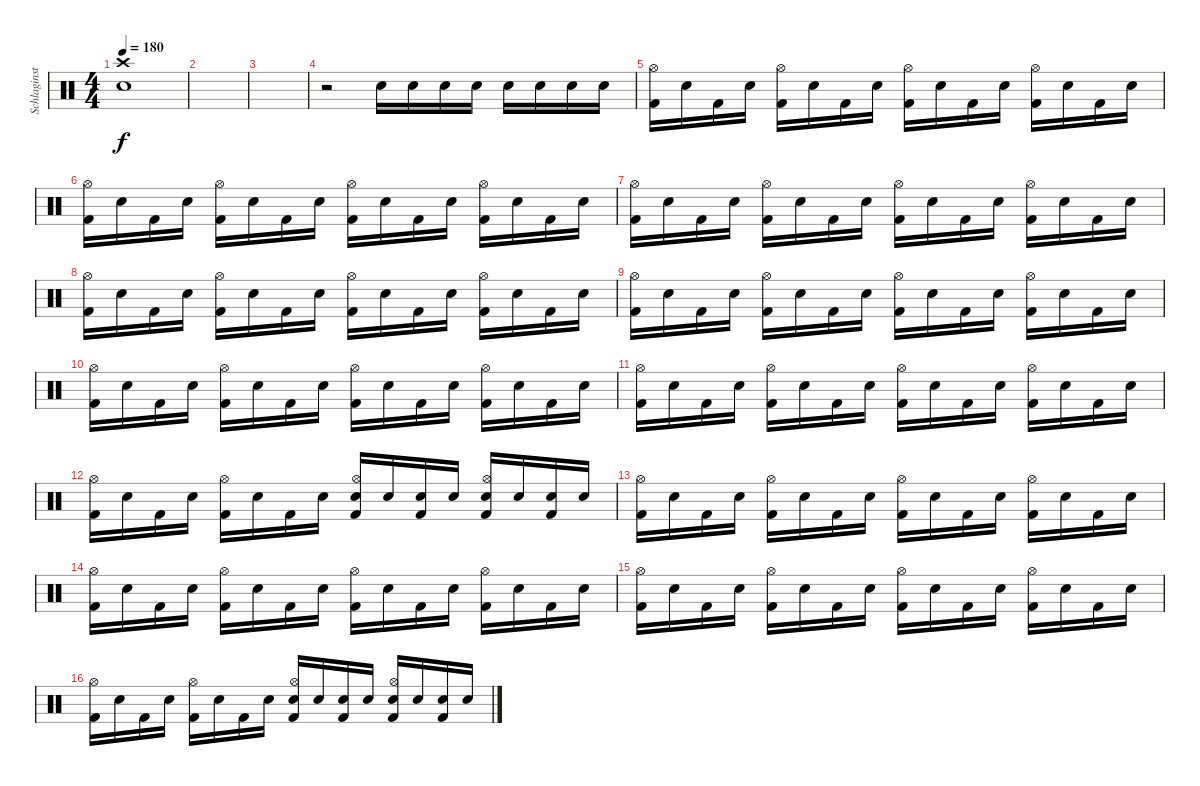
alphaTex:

\track ("Schlaginstrumente - Auswahl" "Schlaginst") {instrument percussion}
\staff {score}
\articulation defaults
\ts (4 4)
\tempo 180
\clef neutral
\ks c
("Crash high (hit)" "Snare (hit) 2").1{dy f} |
|
|
r.2 "Snare (hit) 2".16 "Snare (hit) 2".16 "Snare (hit) 2".16 "Snare (hit) 2".16 "Snare (hit) 2".16 "Snare (hit) 2".16 "Snare (hit) 2".16 "Snare (hit) 2".16 |
("Hi-Hat (open)" "Kick (hit) 2").16 "Snare (hit) 2".16 "Kick (hit) 2".16 "Snare (hit) 2".16 ("Hi-Hat (open)" "Kick (hit) 2").16 "Snare (hit) 2".16 "Kick (hit) 2".16 "Snare (hit) 2".16 ("Hi-Hat (open)" "Kick (hit) 2").16 "Snare (hit) 2".16 "Kick (hit) 2".16 "Snare (hit) 2".16 ("Hi-Hat (open)" "Kick (hit) 2").16 "Snare (hit) 2".16 "Kick (hit) 2".16 "Snare (hit) 2".16 |
("Hi-Hat (open)" "Kick (hit) 2").16 "Snare (hit) 2".16 "Kick (hit) 2".16 "Snare (hit) 2".16 ("Hi-Hat (open)" "Kick (hit) 2").16 "Snare (hit) 2".16 "Kick (hit) 2".16 "Snare (hit) 2".16 ("Hi-Hat (open)" "Kick (hit) 2").16 "Snare (hit) 2".16 "Kick (hit) 2".16 "Snare (hit) 2".16 ("Hi-Hat (open)" "Kick (hit) 2").16 "Snare (hit) 2".16 "Kick (hit) 2".16 "Snare (hit) 2".16 |
("Hi-Hat (open)" "Kick (hit) 2").16 "Snare (hit) 2".16 "Kick (hit) 2".16 "Snare (hit) 2".16 ("Hi-Hat (open)" "Kick (hit) 2").16 "Snare (hit) 2".16 "Kick (hit) 2".16 "Snare (hit) 2".16 ("Hi-Hat (open)" "Kick (hit) 2").16 "Snare (hit) 2".16 "Kick (hit) 2".16 "Snare (hit) 2".16 ("Hi-Hat (open)" "Kick (hit) 2").16 "Snare (hit) 2".16 "Kick (hit) 2".16 "Snare (hit) 2".16 |
("Hi-Hat (open)" "Kick (hit) 2").16 "Snare (hit) 2".16 "Kick (hit) 2".16 "Snare (hit) 2".16 ("Hi-Hat (open)" "Kick (hit) 2").16 "Snare (hit) 2".16 "Kick (hit) 2".16 "Snare (hit) 2".16 ("Hi-Hat (open)" "Kick (hit) 2").16 "Snare (hit) 2".16 "Kick (hit) 2".16 "Snare (hit) 2".16 ("Hi-Hat (open)" "Kick (hit) 2").16 "Snare (hit) 2".16 "Kick (hit) 2".16 "Snare (hit) 2".16 |
("Hi-Hat (open)" "Kick (hit) 2").16 "Snare (hit) 2".16 "Kick (hit) 2".16 "Snare (hit) 2".16 ("Hi-Hat (open)" "Kick (hit) 2").16 "Snare (hit) 2".16 "Kick (hit) 2".16 "Snare (hit) 2".16 ("Hi-Hat (open)" "Kick (hit) 2").16 "Snare (hit) 2".16 "Kick (hit) 2".16 "Snare (hit) 2".16 ("Hi-Hat (open)" "Kick (hit) 2").16 "Snare (hit) 2".16 "Kick (hit) 2".16 "Snare (hit) 2".16 |
("Hi-Hat (open)" "Kick (hit) 2").16 "Snare (hit) 2".16 "Kick (hit) 2".16 "Snare (hit) 2".16 ("Hi-Hat (open)" "Kick (hit) 2").16 "Snare (hit) 2".16 "Kick (hit) 2".16 "Snare (hit) 2".16 ("Hi-Hat (open)" "Kick (hit) 2").16 "Snare (hit) 2".16 "Kick (hit) 2".16 "Snare (hit) 2".16 ("Hi-Hat (open)" "Kick (hit) 2").16 "Snare (hit) 2".16 "Kick (hit) 2".16 "Snare (hit) 2".16 |
("Hi-Hat (open)" "Kick (hit) 2").16 "Snare (hit) 2".16 "Kick (hit) 2".16 "Snare (hit) 2".16 ("Hi-Hat (open)" "Kick (hit) 2").16 "Snare (hit) 2".16 "Kick (hit) 2".16 "Snare (hit) 2".16 ("Hi-Hat (open)" "Kick (hit) 2").16 "Snare (hit) 2".16 "Kick (hit) 2".16 "Snare (hit) 2".16 ("Hi-Hat (open)" "Kick (hit) 2").16 "Snare (hit) 2".16 "Kick (hit) 2".16 "Snare (hit) 2".16 |
("Hi-Hat (open)" "Kick (hit) 2").16 "Snare (hit) 2".16 "Kick (hit) 2".16 "Snare (hit) 2".16 ("Hi-Hat (open)" "Kick (hit) 2").16 "Snare (hit) 2".16 "Kick (hit) 2".16 "Snare (hit) 2".16 ("Hi-Hat (open)" "Snare (hit) 2" "Kick (hit) 2").16 "Snare (hit) 2".16 ("Snare (hit) 2" "Kick (hit) 2").16 "Snare (hit) 2".16 ("Hi-Hat (open)" "Snare (hit) 2" "Kick (hit) 2").16 "Snare (hit) 2".16 ("Snare (hit) 2" "Kick (hit) 2").16 "Snare (hit) 2".16 |
("Hi-Hat (open)" "Kick (hit) 2").16 "Snare (hit) 2".16 "Kick (hit) 2".16 "Snare (hit) 2".16 ("Hi-Hat (open)" "Kick (hit) 2").16 "Snare (hit) 2".16 "Kick (hit) 2".16 "Snare (hit) 2".16 ("Hi-Hat (open)" "Kick (hit) 2").16 "Snare (hit) 2".16 "Kick (hit) 2".16 "Snare (hit) 2".16 ("Hi-Hat (open)" "Kick (hit) 2").16 "Snare (hit) 2".16 "Kick (hit) 2".16 "Snare (hit) 2".16 |
("Hi-Hat (open)" "Kick (hit) 2").16 "Snare (hit) 2".16 "Kick (hit) 2".16 "Snare (hit) 2".16 ("Hi-Hat (open)" "Kick (hit) 2").16 "Snare (hit) 2".16 "Kick (hit) 2".16 "Snare (hit) 2".16 ("Hi-Hat (open)" "Kick (hit) 2").16 "Snare (hit) 2".16 "Kick (hit) 2".16 "Snare (hit) 2".16 ("Hi-Hat (open)" "Kick (hit) 2").16 "Snare (hit) 2".16 "Kick (hit) 2".16 "Snare (hit) 2".16 |
("Hi-Hat (open)" "Kick (hit) 2").16 "Snare (hit) 2".16 "Kick (hit) 2".16 "Snare (hit) 2".16 ("Hi-Hat (open)" "Kick (hit) 2").16 "Snare (hit) 2".16 "Kick (hit) 2".16 "Snare (hit) 2".16 ("Hi-Hat (open)" "Kick (hit) 2").16 "Snare (hit) 2".16 "Kick (hit) 2".16 "Snare (hit) 2".16 ("Hi-Hat (open)" "Kick (hit) 2").16 "Snare (hit) 2".16 "Kick (hit) 2".16 "Snare (hit) 2".16 |
("Hi-Hat (open)" "Kick (hit) 2").16 "Snare (hit) 2".16 "Kick (hit) 2".16 "Snare (hit) 2".16 ("Hi-Hat (open)" "Kick (hit) 2").16 "Snare (hit) 2".16 "Kick (hit) 2".16 "Snare (hit) 2".16 ("Hi-Hat (open)" "Snare (hit) 2" "Kick (hit) 2").16 "Snare (hit) 2".16 ("Snare (hit) 2" "Kick (hit) 2").16 "Snare (hit) 2".16 ("Hi-Hat (open)" "Snare (hit) 2" "Kick (hit) 2").16 "Snare (hit) 2".16 ("Snare (hit) 2" "Kick (hit) 2").16 "Snare (hit) 2".16
